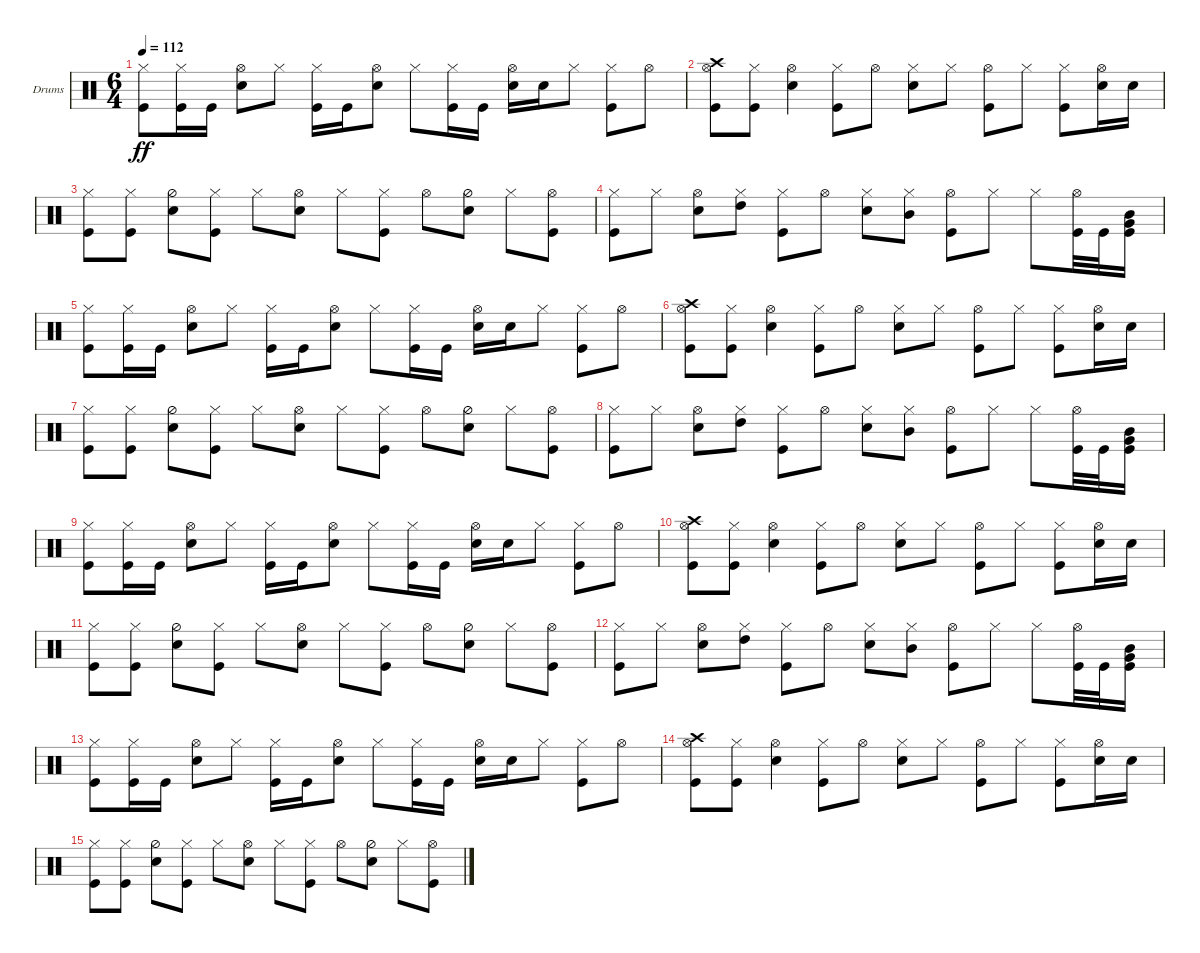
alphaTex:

\defaultSystemsLayout 4
\bracketExtendMode groupsimilarinstruments
\firstSystemTrackNameOrientation horizontal
\otherSystemsTrackNameOrientation horizontal
\track ("Kaleb - Drums" "Drums") {instrument percussion}
\staff {score}
\articulation defaults
\ts (6 4)
\tempo 112
\clef neutral
\ks c
("Kick (hit)" "Hi-Hat (closed)").8{dy ff} ("Kick (hit)" "Hi-Hat (closed)").16 "Kick (hit)".16 ("Snare (hit) 2" "Hi-Hat (open)").8 "Hi-Hat (closed)".8 ("Hi-Hat (closed)" "Kick (hit)").16 "Kick (hit)".16 ("Hi-Hat (open)" "Snare (hit) 2").8 "Hi-Hat (closed)".8 ("Hi-Hat (closed)" "Kick (hit)").16 "Kick (hit)".16 ("Hi-Hat (open)" "Snare (hit) 2").16 "Snare (hit) 2".16 "Hi-Hat (closed)".8 ("Hi-Hat (closed)" "Kick (hit)").8 "Hi-Hat (open)".8 |
("Hi-Hat (open)" "Kick (hit)" "Crash high (hit)").8 ("Kick (hit)" "Hi-Hat (closed)").8 ("Hi-Hat (open)" "Snare (hit) 2").4 ("Kick (hit)" "Hi-Hat (closed)").8 "Hi-Hat (open)".8 ("Hi-Hat (closed)" "Snare (hit) 2").8 "Hi-Hat (closed)".8 ("Hi-Hat (open)" "Kick (hit)").8 "Hi-Hat (closed)".8 ("Kick (hit)" "Hi-Hat (closed)").8 ("Snare (hit) 2" "Hi-Hat (open)").16 "Snare (hit) 2".16 |
("Hi-Hat (closed)" "Kick (hit)").8 ("Hi-Hat (closed)" "Kick (hit)").8 ("Hi-Hat (half)" "Snare (hit) 2").8 ("Hi-Hat (closed)" "Kick (hit)").8 "Hi-Hat (closed)".8 ("Hi-Hat (open)" "Snare (hit) 2").8 "Hi-Hat (closed)".8 ("Hi-Hat (closed)" "Kick (hit)").8 "Hi-Hat (open)".8 ("Hi-Hat (half)" "Snare (hit) 2").8 "Hi-Hat (closed)".8 ("Hi-Hat (open)" "Kick (hit)").8 |
("Kick (hit)" "Hi-Hat (closed)").8 "Hi-Hat (closed)".8 ("Hi-Hat (open)" "Snare (hit) 2").8 ("Hi-Hat (closed)" "High Tom (hit)").8 ("Hi-Hat (closed)" "Kick (hit)").8 "Hi-Hat (open)".8 ("Hi-Hat (closed)" "Snare (hit) 2").8 ("Hi-Hat (closed)" "Mid Tom (hit)").8 ("Hi-Hat (open)" "Kick (hit)").8 "Hi-Hat (closed)".8 "Hi-Hat (closed)".8 ("Kick (hit)" "Hi-Hat (open)").32 "Kick (hit)".32 ("Mid Tom (hit)" "Very Low Tom (hit)" "Kick (hit)").16 |
("Kick (hit)" "Hi-Hat (closed)").8 ("Kick (hit)" "Hi-Hat (closed)").16 "Kick (hit)".16 ("Snare (hit) 2" "Hi-Hat (open)").8 "Hi-Hat (closed)".8 ("Hi-Hat (closed)" "Kick (hit)").16 "Kick (hit)".16 ("Hi-Hat (open)" "Snare (hit) 2").8 "Hi-Hat (closed)".8 ("Hi-Hat (closed)" "Kick (hit)").16 "Kick (hit)".16 ("Hi-Hat (open)" "Snare (hit) 2").16 "Snare (hit) 2".16 "Hi-Hat (closed)".8 ("Hi-Hat (closed)" "Kick (hit)").8 "Hi-Hat (open)".8 |
("Hi-Hat (open)" "Kick (hit)" "Crash high (hit)").8 ("Kick (hit)" "Hi-Hat (closed)").8 ("Hi-Hat (open)" "Snare (hit) 2").4 ("Kick (hit)" "Hi-Hat (closed)").8 "Hi-Hat (open)".8 ("Hi-Hat (closed)" "Snare (hit) 2").8 "Hi-Hat (closed)".8 ("Hi-Hat (open)" "Kick (hit)").8 "Hi-Hat (closed)".8 ("Kick (hit)" "Hi-Hat (closed)").8 ("Snare (hit) 2" "Hi-Hat (open)").16 "Snare (hit) 2".16 |
("Hi-Hat (closed)" "Kick (hit)").8 ("Hi-Hat (closed)" "Kick (hit)").8 ("Hi-Hat (half)" "Snare (hit) 2").8 ("Hi-Hat (closed)" "Kick (hit)").8 "Hi-Hat (closed)".8 ("Hi-Hat (open)" "Snare (hit) 2").8 "Hi-Hat (closed)".8 ("Hi-Hat (closed)" "Kick (hit)").8 "Hi-Hat (open)".8 ("Hi-Hat (half)" "Snare (hit) 2").8 "Hi-Hat (closed)".8 ("Hi-Hat (open)" "Kick (hit)").8 |
("Kick (hit)" "Hi-Hat (closed)").8 "Hi-Hat (closed)".8 ("Hi-Hat (open)" "Snare (hit) 2").8 ("Hi-Hat (closed)" "High Tom (hit)").8 ("Hi-Hat (closed)" "Kick (hit)").8 "Hi-Hat (open)".8 ("Hi-Hat (closed)" "Snare (hit) 2").8 ("Hi-Hat (closed)" "Mid Tom (hit)").8 ("Hi-Hat (open)" "Kick (hit)").8 "Hi-Hat (closed)".8 "Hi-Hat (closed)".8 ("Kick (hit)" "Hi-Hat (open)").32 "Kick (hit)".32 ("Mid Tom (hit)" "Very Low Tom (hit)" "Kick (hit)").16 |
("Kick (hit)" "Hi-Hat (closed)").8 ("Kick (hit)" "Hi-Hat (closed)").16 "Kick (hit)".16 ("Snare (hit) 2" "Hi-Hat (open)").8 "Hi-Hat (closed)".8 ("Hi-Hat (closed)" "Kick (hit)").16 "Kick (hit)".16 ("Hi-Hat (open)" "Snare (hit) 2").8 "Hi-Hat (closed)".8 ("Hi-Hat (closed)" "Kick (hit)").16 "Kick (hit)".16 ("Hi-Hat (open)" "Snare (hit) 2").16 "Snare (hit) 2".16 "Hi-Hat (closed)".8 ("Hi-Hat (closed)" "Kick (hit)").8 "Hi-Hat (open)".8 |
("Hi-Hat (open)" "Kick (hit)" "Crash high (hit)").8 ("Kick (hit)" "Hi-Hat (closed)").8 ("Hi-Hat (open)" "Snare (hit) 2").4 ("Kick (hit)" "Hi-Hat (closed)").8 "Hi-Hat (open)".8 ("Hi-Hat (closed)" "Snare (hit) 2").8 "Hi-Hat (closed)".8 ("Hi-Hat (open)" "Kick (hit)").8 "Hi-Hat (closed)".8 ("Kick (hit)" "Hi-Hat (closed)").8 ("Snare (hit) 2" "Hi-Hat (open)").16 "Snare (hit) 2".16 |
("Hi-Hat (closed)" "Kick (hit)").8 ("Hi-Hat (closed)" "Kick (hit)").8 ("Hi-Hat (half)" "Snare (hit) 2").8 ("Hi-Hat (closed)" "Kick (hit)").8 "Hi-Hat (closed)".8 ("Hi-Hat (open)" "Snare (hit) 2").8 "Hi-Hat (closed)".8 ("Hi-Hat (closed)" "Kick (hit)").8 "Hi-Hat (open)".8 ("Hi-Hat (half)" "Snare (hit) 2").8 "Hi-Hat (closed)".8 ("Hi-Hat (open)" "Kick (hit)").8 |
("Kick (hit)" "Hi-Hat (closed)").8 "Hi-Hat (closed)".8 ("Hi-Hat (open)" "Snare (hit) 2").8 ("Hi-Hat (closed)" "High Tom (hit)").8 ("Hi-Hat (closed)" "Kick (hit)").8 "Hi-Hat (open)".8 ("Hi-Hat (closed)" "Snare (hit) 2").8 ("Hi-Hat (closed)" "Mid Tom (hit)").8 ("Hi-Hat (open)" "Kick (hit)").8 "Hi-Hat (closed)".8 "Hi-Hat (closed)".8 ("Kick (hit)" "Hi-Hat (open)").32 "Kick (hit)".32 ("Mid Tom (hit)" "Very Low Tom (hit)" "Kick (hit)").16 |
("Kick (hit)" "Hi-Hat (closed)").8 ("Kick (hit)" "Hi-Hat (closed)").16 "Kick (hit)".16 ("Snare (hit) 2" "Hi-Hat (open)").8 "Hi-Hat (closed)".8 ("Hi-Hat (closed)" "Kick (hit)").16 "Kick (hit)".16 ("Hi-Hat (open)" "Snare (hit) 2").8 "Hi-Hat (closed)".8 ("Hi-Hat (closed)" "Kick (hit)").16 "Kick (hit)".16 ("Hi-Hat (open)" "Snare (hit) 2").16 "Snare (hit) 2".16 "Hi-Hat (closed)".8 ("Hi-Hat (closed)" "Kick (hit)").8 "Hi-Hat (open)".8 |
("Hi-Hat (open)" "Kick (hit)" "Crash high (hit)").8 ("Kick (hit)" "Hi-Hat (closed)").8 ("Hi-Hat (open)" "Snare (hit) 2").4 ("Kick (hit)" "Hi-Hat (closed)").8 "Hi-Hat (open)".8 ("Hi-Hat (closed)" "Snare (hit) 2").8 "Hi-Hat (closed)".8 ("Hi-Hat (open)" "Kick (hit)").8 "Hi-Hat (closed)".8 ("Kick (hit)" "Hi-Hat (closed)").8 ("Snare (hit) 2" "Hi-Hat (open)").16 "Snare (hit) 2".16 |
("Hi-Hat (closed)" "Kick (hit)").8 ("Hi-Hat (closed)" "Kick (hit)").8 ("Hi-Hat (half)" "Snare (hit) 2").8 ("Hi-Hat (closed)" "Kick (hit)").8 "Hi-Hat (closed)".8 ("Hi-Hat (open)" "Snare (hit) 2").8 "Hi-Hat (closed)".8 ("Hi-Hat (closed)" "Kick (hit)").8 "Hi-Hat (open)".8 ("Hi-Hat (half)" "Snare (hit) 2").8 "Hi-Hat (closed)".8 ("Hi-Hat (open)" "Kick (hit)").8
